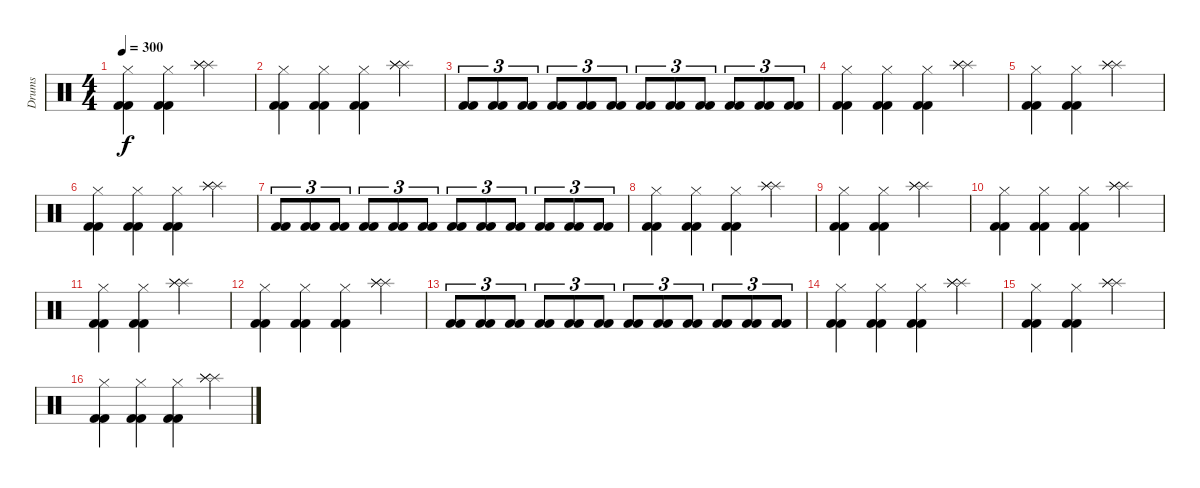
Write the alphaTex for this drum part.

\track ("Drums" "Drums") {instrument percussion}
\staff {score}
\articulation defaults
\ts (4 4)
\tempo 300
\clef neutral
\ks c
("Hi-Hat (closed)" "Kick (hit) 2" "Kick (hit) 2").4{dy f} ("Hi-Hat (closed)" "Kick (hit) 2" "Kick (hit) 2").4 ("Splash (hit)" "Splash (hit)" "Splash (hit)").2 |
("Hi-Hat (closed)" "Kick (hit) 2" "Kick (hit) 2").4 ("Hi-Hat (closed)" "Kick (hit) 2" "Kick (hit) 2").4 ("Hi-Hat (closed)" "Kick (hit) 2" "Kick (hit) 2").4 ("Splash (hit)" "Splash (hit)" "Splash (hit)").4 |
("Kick (hit) 2" "Kick (hit) 2").8{tu (3 2)} ("Kick (hit) 2" "Kick (hit) 2").8{tu (3 2)} ("Kick (hit) 2" "Kick (hit) 2").8{tu (3 2)} ("Kick (hit) 2" "Kick (hit) 2").8{tu (3 2)} ("Kick (hit) 2" "Kick (hit) 2").8{tu (3 2)} ("Kick (hit) 2" "Kick (hit) 2").8{tu (3 2)} ("Kick (hit) 2" "Kick (hit) 2").8{tu (3 2)} ("Kick (hit) 2" "Kick (hit) 2").8{tu (3 2)} ("Kick (hit) 2" "Kick (hit) 2").8{tu (3 2)} ("Kick (hit) 2" "Kick (hit) 2").8{tu (3 2)} ("Kick (hit) 2" "Kick (hit) 2").8{tu (3 2)} ("Kick (hit) 2" "Kick (hit) 2").8{tu (3 2)} |
("Hi-Hat (closed)" "Kick (hit) 2" "Kick (hit) 2").4 ("Hi-Hat (closed)" "Kick (hit) 2" "Kick (hit) 2").4 ("Hi-Hat (closed)" "Kick (hit) 2" "Kick (hit) 2").4 ("Splash (hit)" "Splash (hit)" "Splash (hit)").4 |
("Hi-Hat (closed)" "Kick (hit) 2" "Kick (hit) 2").4 ("Hi-Hat (closed)" "Kick (hit) 2" "Kick (hit) 2").4 ("Splash (hit)" "Splash (hit)" "Splash (hit)").2 |
("Hi-Hat (closed)" "Kick (hit) 2" "Kick (hit) 2").4 ("Hi-Hat (closed)" "Kick (hit) 2" "Kick (hit) 2").4 ("Hi-Hat (closed)" "Kick (hit) 2" "Kick (hit) 2").4 ("Splash (hit)" "Splash (hit)" "Splash (hit)").4 |
("Kick (hit) 2" "Kick (hit) 2").8{tu (3 2)} ("Kick (hit) 2" "Kick (hit) 2").8{tu (3 2)} ("Kick (hit) 2" "Kick (hit) 2").8{tu (3 2)} ("Kick (hit) 2" "Kick (hit) 2").8{tu (3 2)} ("Kick (hit) 2" "Kick (hit) 2").8{tu (3 2)} ("Kick (hit) 2" "Kick (hit) 2").8{tu (3 2)} ("Kick (hit) 2" "Kick (hit) 2").8{tu (3 2)} ("Kick (hit) 2" "Kick (hit) 2").8{tu (3 2)} ("Kick (hit) 2" "Kick (hit) 2").8{tu (3 2)} ("Kick (hit) 2" "Kick (hit) 2").8{tu (3 2)} ("Kick (hit) 2" "Kick (hit) 2").8{tu (3 2)} ("Kick (hit) 2" "Kick (hit) 2").8{tu (3 2)} |
("Hi-Hat (closed)" "Kick (hit) 2" "Kick (hit) 2").4 ("Hi-Hat (closed)" "Kick (hit) 2" "Kick (hit) 2").4 ("Hi-Hat (closed)" "Kick (hit) 2" "Kick (hit) 2").4 ("Splash (hit)" "Splash (hit)" "Splash (hit)").4 |
("Hi-Hat (closed)" "Kick (hit) 2" "Kick (hit) 2").4 ("Hi-Hat (closed)" "Kick (hit) 2" "Kick (hit) 2").4 ("Splash (hit)" "Splash (hit)" "Splash (hit)").2 |
("Hi-Hat (closed)" "Kick (hit) 2" "Kick (hit) 2").4 ("Hi-Hat (closed)" "Kick (hit) 2" "Kick (hit) 2").4 ("Hi-Hat (closed)" "Kick (hit) 2" "Kick (hit) 2").4 ("Splash (hit)" "Splash (hit)" "Splash (hit)").4 |
("Hi-Hat (closed)" "Kick (hit) 2" "Kick (hit) 2").4 ("Hi-Hat (closed)" "Kick (hit) 2" "Kick (hit) 2").4 ("Splash (hit)" "Splash (hit)" "Splash (hit)").2 |
("Hi-Hat (closed)" "Kick (hit) 2" "Kick (hit) 2").4 ("Hi-Hat (closed)" "Kick (hit) 2" "Kick (hit) 2").4 ("Hi-Hat (closed)" "Kick (hit) 2" "Kick (hit) 2").4 ("Splash (hit)" "Splash (hit)" "Splash (hit)").4 |
("Kick (hit) 2" "Kick (hit) 2").8{tu (3 2)} ("Kick (hit) 2" "Kick (hit) 2").8{tu (3 2)} ("Kick (hit) 2" "Kick (hit) 2").8{tu (3 2)} ("Kick (hit) 2" "Kick (hit) 2").8{tu (3 2)} ("Kick (hit) 2" "Kick (hit) 2").8{tu (3 2)} ("Kick (hit) 2" "Kick (hit) 2").8{tu (3 2)} ("Kick (hit) 2" "Kick (hit) 2").8{tu (3 2)} ("Kick (hit) 2" "Kick (hit) 2").8{tu (3 2)} ("Kick (hit) 2" "Kick (hit) 2").8{tu (3 2)} ("Kick (hit) 2" "Kick (hit) 2").8{tu (3 2)} ("Kick (hit) 2" "Kick (hit) 2").8{tu (3 2)} ("Kick (hit) 2" "Kick (hit) 2").8{tu (3 2)} |
("Hi-Hat (closed)" "Kick (hit) 2" "Kick (hit) 2").4 ("Hi-Hat (closed)" "Kick (hit) 2" "Kick (hit) 2").4 ("Hi-Hat (closed)" "Kick (hit) 2" "Kick (hit) 2").4 ("Splash (hit)" "Splash (hit)" "Splash (hit)").4 |
("Hi-Hat (closed)" "Kick (hit) 2" "Kick (hit) 2").4 ("Hi-Hat (closed)" "Kick (hit) 2" "Kick (hit) 2").4 ("Splash (hit)" "Splash (hit)" "Splash (hit)").2 |
("Hi-Hat (closed)" "Kick (hit) 2" "Kick (hit) 2").4 ("Hi-Hat (closed)" "Kick (hit) 2" "Kick (hit) 2").4 ("Hi-Hat (closed)" "Kick (hit) 2" "Kick (hit) 2").4 ("Splash (hit)" "Splash (hit)" "Splash (hit)").4
